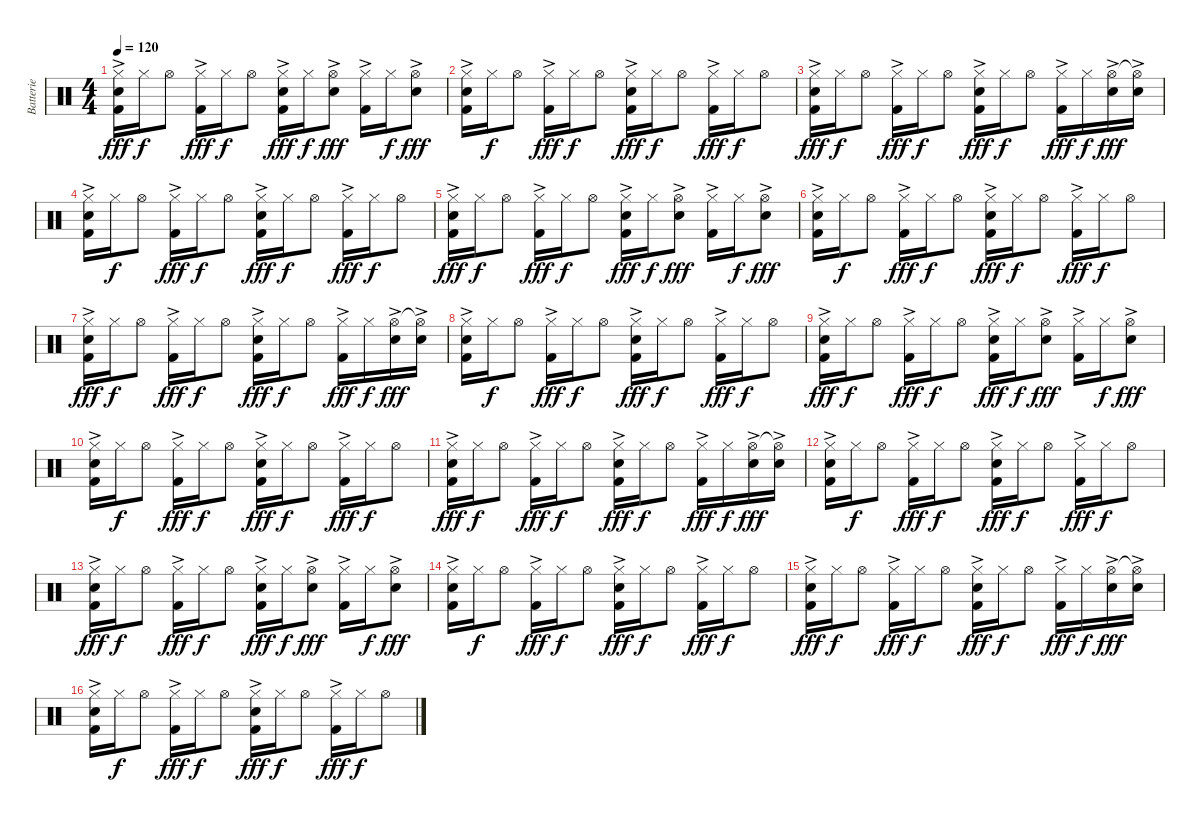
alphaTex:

\track ("Batterie" "Batterie") {instrument percussion}
\staff {score}
\articulation defaults
\ts (4 4)
\tempo 120
\clef neutral
\ks c
("Hi-Hat (closed)" "Electric Snare (hit)"{ac} "Kick (hit) 2"{ac}).16{dy fff} "Hi-Hat (closed)".16{dy f} "Hi-Hat (open)".8 ("Hi-Hat (closed)" "Kick (hit) 2"{ac}).16{dy fff} "Hi-Hat (closed)".16{dy f} "Hi-Hat (open)".8 ("Hi-Hat (closed)" "Electric Snare (hit)"{ac} "Kick (hit) 2"{ac}).16{dy fff} "Hi-Hat (closed)".16{dy f} ("Hi-Hat (open)" "Electric Snare (hit)"{ac}).8{dy fff} ("Hi-Hat (closed)" "Kick (hit) 2"{ac}).16 "Hi-Hat (closed)".16{dy f} ("Hi-Hat (open)" "Electric Snare (hit)"{ac}).8{dy fff} |
("Hi-Hat (closed)" "Electric Snare (hit)"{ac} "Kick (hit) 2"{ac}).16 "Hi-Hat (closed)".16{dy f} "Hi-Hat (open)".8 ("Hi-Hat (closed)" "Kick (hit) 2"{ac}).16{dy fff} "Hi-Hat (closed)".16{dy f} "Hi-Hat (open)".8 ("Hi-Hat (closed)" "Electric Snare (hit)"{ac} "Kick (hit) 2"{ac}).16{dy fff} "Hi-Hat (closed)".16{dy f} "Hi-Hat (open)".8 ("Hi-Hat (closed)" "Kick (hit) 2"{ac}).16{dy fff} "Hi-Hat (closed)".16{dy f} "Hi-Hat (open)".8 |
("Hi-Hat (closed)" "Electric Snare (hit)"{ac} "Kick (hit) 2"{ac}).16{dy fff} "Hi-Hat (closed)".16{dy f} "Hi-Hat (open)".8 ("Hi-Hat (closed)" "Kick (hit) 2"{ac}).16{dy fff} "Hi-Hat (closed)".16{dy f} "Hi-Hat (open)".8 ("Hi-Hat (closed)" "Electric Snare (hit)"{ac} "Kick (hit) 2"{ac}).16{dy fff} "Hi-Hat (closed)".16{dy f} "Hi-Hat (open)".8 ("Hi-Hat (closed)" "Kick (hit) 2"{ac}).16{dy fff} "Hi-Hat (closed)".16{dy f} ("Hi-Hat (open)" "Electric Snare (hit)"{ac}).16{dy fff} ("Hi-Hat (open)"{t} "Electric Snare (hit)"{ac}).16 |
("Hi-Hat (closed)" "Electric Snare (hit)"{ac} "Kick (hit) 2"{ac}).16 "Hi-Hat (closed)".16{dy f} "Hi-Hat (open)".8 ("Hi-Hat (closed)" "Kick (hit) 2"{ac}).16{dy fff} "Hi-Hat (closed)".16{dy f} "Hi-Hat (open)".8 ("Hi-Hat (closed)" "Electric Snare (hit)"{ac} "Kick (hit) 2"{ac}).16{dy fff} "Hi-Hat (closed)".16{dy f} "Hi-Hat (open)".8 ("Hi-Hat (closed)" "Kick (hit) 2"{ac}).16{dy fff} "Hi-Hat (closed)".16{dy f} "Hi-Hat (open)".8 |
("Hi-Hat (closed)" "Electric Snare (hit)"{ac} "Kick (hit) 2"{ac}).16{dy fff} "Hi-Hat (closed)".16{dy f} "Hi-Hat (open)".8 ("Hi-Hat (closed)" "Kick (hit) 2"{ac}).16{dy fff} "Hi-Hat (closed)".16{dy f} "Hi-Hat (open)".8 ("Hi-Hat (closed)" "Electric Snare (hit)"{ac} "Kick (hit) 2"{ac}).16{dy fff} "Hi-Hat (closed)".16{dy f} ("Hi-Hat (open)" "Electric Snare (hit)"{ac}).8{dy fff} ("Hi-Hat (closed)" "Kick (hit) 2"{ac}).16 "Hi-Hat (closed)".16{dy f} ("Hi-Hat (open)" "Electric Snare (hit)"{ac}).8{dy fff} |
("Hi-Hat (closed)" "Electric Snare (hit)"{ac} "Kick (hit) 2"{ac}).16 "Hi-Hat (closed)".16{dy f} "Hi-Hat (open)".8 ("Hi-Hat (closed)" "Kick (hit) 2"{ac}).16{dy fff} "Hi-Hat (closed)".16{dy f} "Hi-Hat (open)".8 ("Hi-Hat (closed)" "Electric Snare (hit)"{ac} "Kick (hit) 2"{ac}).16{dy fff} "Hi-Hat (closed)".16{dy f} "Hi-Hat (open)".8 ("Hi-Hat (closed)" "Kick (hit) 2"{ac}).16{dy fff} "Hi-Hat (closed)".16{dy f} "Hi-Hat (open)".8 |
("Hi-Hat (closed)" "Electric Snare (hit)"{ac} "Kick (hit) 2"{ac}).16{dy fff} "Hi-Hat (closed)".16{dy f} "Hi-Hat (open)".8 ("Hi-Hat (closed)" "Kick (hit) 2"{ac}).16{dy fff} "Hi-Hat (closed)".16{dy f} "Hi-Hat (open)".8 ("Hi-Hat (closed)" "Electric Snare (hit)"{ac} "Kick (hit) 2"{ac}).16{dy fff} "Hi-Hat (closed)".16{dy f} "Hi-Hat (open)".8 ("Hi-Hat (closed)" "Kick (hit) 2"{ac}).16{dy fff} "Hi-Hat (closed)".16{dy f} ("Hi-Hat (open)" "Electric Snare (hit)"{ac}).16{dy fff} ("Hi-Hat (open)"{t} "Electric Snare (hit)"{ac}).16 |
("Hi-Hat (closed)" "Electric Snare (hit)"{ac} "Kick (hit) 2"{ac}).16 "Hi-Hat (closed)".16{dy f} "Hi-Hat (open)".8 ("Hi-Hat (closed)" "Kick (hit) 2"{ac}).16{dy fff} "Hi-Hat (closed)".16{dy f} "Hi-Hat (open)".8 ("Hi-Hat (closed)" "Electric Snare (hit)"{ac} "Kick (hit) 2"{ac}).16{dy fff} "Hi-Hat (closed)".16{dy f} "Hi-Hat (open)".8 ("Hi-Hat (closed)" "Kick (hit) 2"{ac}).16{dy fff} "Hi-Hat (closed)".16{dy f} "Hi-Hat (open)".8 |
("Hi-Hat (closed)" "Electric Snare (hit)"{ac} "Kick (hit) 2"{ac}).16{dy fff} "Hi-Hat (closed)".16{dy f} "Hi-Hat (open)".8 ("Hi-Hat (closed)" "Kick (hit) 2"{ac}).16{dy fff} "Hi-Hat (closed)".16{dy f} "Hi-Hat (open)".8 ("Hi-Hat (closed)" "Electric Snare (hit)"{ac} "Kick (hit) 2"{ac}).16{dy fff} "Hi-Hat (closed)".16{dy f} ("Hi-Hat (open)" "Electric Snare (hit)"{ac}).8{dy fff} ("Hi-Hat (closed)" "Kick (hit) 2"{ac}).16 "Hi-Hat (closed)".16{dy f} ("Hi-Hat (open)" "Electric Snare (hit)"{ac}).8{dy fff} |
("Hi-Hat (closed)" "Electric Snare (hit)"{ac} "Kick (hit) 2"{ac}).16 "Hi-Hat (closed)".16{dy f} "Hi-Hat (open)".8 ("Hi-Hat (closed)" "Kick (hit) 2"{ac}).16{dy fff} "Hi-Hat (closed)".16{dy f} "Hi-Hat (open)".8 ("Hi-Hat (closed)" "Electric Snare (hit)"{ac} "Kick (hit) 2"{ac}).16{dy fff} "Hi-Hat (closed)".16{dy f} "Hi-Hat (open)".8 ("Hi-Hat (closed)" "Kick (hit) 2"{ac}).16{dy fff} "Hi-Hat (closed)".16{dy f} "Hi-Hat (open)".8 |
("Hi-Hat (closed)" "Electric Snare (hit)"{ac} "Kick (hit) 2"{ac}).16{dy fff} "Hi-Hat (closed)".16{dy f} "Hi-Hat (open)".8 ("Hi-Hat (closed)" "Kick (hit) 2"{ac}).16{dy fff} "Hi-Hat (closed)".16{dy f} "Hi-Hat (open)".8 ("Hi-Hat (closed)" "Electric Snare (hit)"{ac} "Kick (hit) 2"{ac}).16{dy fff} "Hi-Hat (closed)".16{dy f} "Hi-Hat (open)".8 ("Hi-Hat (closed)" "Kick (hit) 2"{ac}).16{dy fff} "Hi-Hat (closed)".16{dy f} ("Hi-Hat (open)" "Electric Snare (hit)"{ac}).16{dy fff} ("Hi-Hat (open)"{t} "Electric Snare (hit)"{ac}).16 |
("Hi-Hat (closed)" "Electric Snare (hit)"{ac} "Kick (hit) 2"{ac}).16 "Hi-Hat (closed)".16{dy f} "Hi-Hat (open)".8 ("Hi-Hat (closed)" "Kick (hit) 2"{ac}).16{dy fff} "Hi-Hat (closed)".16{dy f} "Hi-Hat (open)".8 ("Hi-Hat (closed)" "Electric Snare (hit)"{ac} "Kick (hit) 2"{ac}).16{dy fff} "Hi-Hat (closed)".16{dy f} "Hi-Hat (open)".8 ("Hi-Hat (closed)" "Kick (hit) 2"{ac}).16{dy fff} "Hi-Hat (closed)".16{dy f} "Hi-Hat (open)".8 |
("Hi-Hat (closed)" "Electric Snare (hit)"{ac} "Kick (hit) 2"{ac}).16{dy fff} "Hi-Hat (closed)".16{dy f} "Hi-Hat (open)".8 ("Hi-Hat (closed)" "Kick (hit) 2"{ac}).16{dy fff} "Hi-Hat (closed)".16{dy f} "Hi-Hat (open)".8 ("Hi-Hat (closed)" "Electric Snare (hit)"{ac} "Kick (hit) 2"{ac}).16{dy fff} "Hi-Hat (closed)".16{dy f} ("Hi-Hat (open)" "Electric Snare (hit)"{ac}).8{dy fff} ("Hi-Hat (closed)" "Kick (hit) 2"{ac}).16 "Hi-Hat (closed)".16{dy f} ("Hi-Hat (open)" "Electric Snare (hit)"{ac}).8{dy fff} |
("Hi-Hat (closed)" "Electric Snare (hit)"{ac} "Kick (hit) 2"{ac}).16 "Hi-Hat (closed)".16{dy f} "Hi-Hat (open)".8 ("Hi-Hat (closed)" "Kick (hit) 2"{ac}).16{dy fff} "Hi-Hat (closed)".16{dy f} "Hi-Hat (open)".8 ("Hi-Hat (closed)" "Electric Snare (hit)"{ac} "Kick (hit) 2"{ac}).16{dy fff} "Hi-Hat (closed)".16{dy f} "Hi-Hat (open)".8 ("Hi-Hat (closed)" "Kick (hit) 2"{ac}).16{dy fff} "Hi-Hat (closed)".16{dy f} "Hi-Hat (open)".8 |
("Hi-Hat (closed)" "Electric Snare (hit)"{ac} "Kick (hit) 2"{ac}).16{dy fff} "Hi-Hat (closed)".16{dy f} "Hi-Hat (open)".8 ("Hi-Hat (closed)" "Kick (hit) 2"{ac}).16{dy fff} "Hi-Hat (closed)".16{dy f} "Hi-Hat (open)".8 ("Hi-Hat (closed)" "Electric Snare (hit)"{ac} "Kick (hit) 2"{ac}).16{dy fff} "Hi-Hat (closed)".16{dy f} "Hi-Hat (open)".8 ("Hi-Hat (closed)" "Kick (hit) 2"{ac}).16{dy fff} "Hi-Hat (closed)".16{dy f} ("Hi-Hat (open)" "Electric Snare (hit)"{ac}).16{dy fff} ("Hi-Hat (open)"{t} "Electric Snare (hit)"{ac}).16 |
("Hi-Hat (closed)" "Electric Snare (hit)"{ac} "Kick (hit) 2"{ac}).16 "Hi-Hat (closed)".16{dy f} "Hi-Hat (open)".8 ("Hi-Hat (closed)" "Kick (hit) 2"{ac}).16{dy fff} "Hi-Hat (closed)".16{dy f} "Hi-Hat (open)".8 ("Hi-Hat (closed)" "Electric Snare (hit)"{ac} "Kick (hit) 2"{ac}).16{dy fff} "Hi-Hat (closed)".16{dy f} "Hi-Hat (open)".8 ("Hi-Hat (closed)" "Kick (hit) 2"{ac}).16{dy fff} "Hi-Hat (closed)".16{dy f} "Hi-Hat (open)".8
